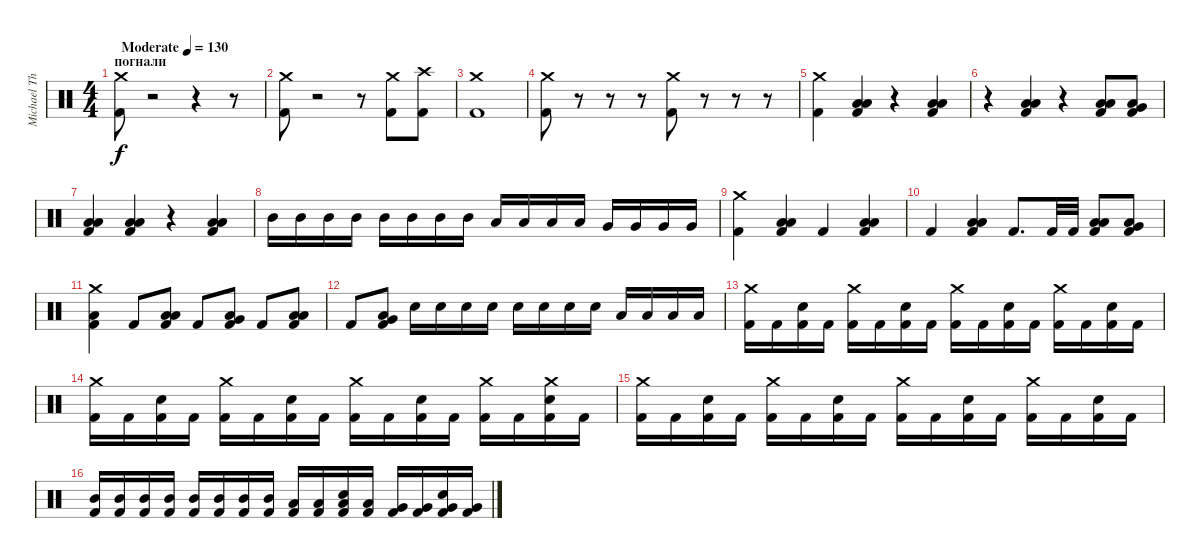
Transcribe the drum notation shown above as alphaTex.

\track ("Michael Thomas" "Michael Th") {instrument percussion}
\staff {score}
\articulation defaults
\ts (4 4)
\section ("" "погнали")
\tempo (130 "Moderate")
\clef neutral
\ks c
("Crash medium (hit)" "Kick (hit) 2").8{dy f} r.2 r.4 r.8 |
("Crash medium (hit)" "Kick (hit) 2").8 r.2 r.8 ("Crash medium (hit)" "Kick (hit) 2").8 ("Crash high (hit)" "Kick (hit) 2").8 |
("Crash medium (hit)" "Kick (hit) 2").1 |
("Crash medium (hit)" "Kick (hit) 2").8 r.8 r.8 r.8 ("Crash medium (hit)" "Kick (hit) 2").8 r.8 r.8 r.8 |
("Crash medium (hit)" "Kick (hit) 2").4 ("Low Floor Tom (hit)" "Low Tom (hit)" "Kick (hit) 2").4 r.4 ("Low Floor Tom (hit)" "Low Tom (hit)" "Kick (hit) 2").4 |
r.4 ("Low Floor Tom (hit)" "Low Tom (hit)" "Kick (hit) 2").4 r.4 ("Low Floor Tom (hit)" "Low Tom (hit)" "Kick (hit) 2").8 ("Low Floor Tom (hit)" "Very Low Tom (hit)" "Kick (hit) 2").8 |
("Low Floor Tom (hit)" "Low Tom (hit)" "Kick (hit) 2").4 ("Low Floor Tom (hit)" "Low Tom (hit)" "Kick (hit) 2").4 r.4 ("Low Floor Tom (hit)" "Low Tom (hit)" "Kick (hit) 2").4 |
"Mid Tom (hit)".16 "Mid Tom (hit)".16 "Mid Tom (hit)".16 "Mid Tom (hit)".16 "Mid Tom (hit)".16 "Mid Tom (hit)".16 "Mid Tom (hit)".16 "Mid Tom (hit)".16 "Low Tom (hit)".16 "Low Tom (hit)".16 "Low Tom (hit)".16 "Low Tom (hit)".16 "Very Low Tom (hit)".16 "Very Low Tom (hit)".16 "Very Low Tom (hit)".16 "Very Low Tom (hit)".16 |
("Crash medium (hit)" "Kick (hit) 2").4 ("Low Floor Tom (hit)" "Low Tom (hit)" "Kick (hit) 2").4 "Kick (hit) 2".4 ("Low Floor Tom (hit)" "Low Tom (hit)" "Kick (hit) 2").4 |
"Kick (hit) 2".4 ("Low Floor Tom (hit)" "Low Tom (hit)" "Kick (hit) 2").4 "Kick (hit) 2".8{d} "Kick (hit) 2".32 "Kick (hit) 2".32 ("Low Floor Tom (hit)" "Low Tom (hit)" "Kick (hit) 2").8 ("Low Floor Tom (hit)" "Very Low Tom (hit)" "Kick (hit) 2").8 |
("Crash medium (hit)" "Low Floor Tom (hit)" "Kick (hit) 2").4 "Kick (hit) 2".8 ("Low Floor Tom (hit)" "Low Tom (hit)" "Kick (hit) 2").8 "Kick (hit) 2".8 ("Low Floor Tom (hit)" "Very Low Tom (hit)" "Kick (hit) 2").8 "Kick (hit) 2".8 ("Low Floor Tom (hit)" "Low Tom (hit)" "Kick (hit) 2").8 |
"Kick (hit) 2".8 ("Low Floor Tom (hit)" "Very Low Tom (hit)" "Kick (hit) 2").8 "Electric Snare (hit)".16 "Electric Snare (hit)".16 "Electric Snare (hit)".16 "Electric Snare (hit)".16 "Electric Snare (hit)".16 "Electric Snare (hit)".16 "Electric Snare (hit)".16 "Electric Snare (hit)".16 "Low Tom (hit)".16 "Low Tom (hit)".16 "Low Tom (hit)".16 "Low Tom (hit)".16 |
("Crash medium (hit)" "Kick (hit) 2").16 "Kick (hit) 2".16 ("Electric Snare (hit)" "Kick (hit) 2").16 "Kick (hit) 2".16 ("Crash medium (hit)" "Kick (hit) 2").16 "Kick (hit) 2".16 ("Electric Snare (hit)" "Kick (hit) 2").16 "Kick (hit) 2".16 ("Crash medium (hit)" "Kick (hit) 2").16 "Kick (hit) 2".16 ("Electric Snare (hit)" "Kick (hit) 2").16 "Kick (hit) 2".16 ("Crash medium (hit)" "Kick (hit) 2").16 "Kick (hit) 2".16 ("Electric Snare (hit)" "Kick (hit) 2").16 "Kick (hit) 2".16 |
("Crash medium (hit)" "Kick (hit) 2").16 "Kick (hit) 2".16 ("Electric Snare (hit)" "Kick (hit) 2").16 "Kick (hit) 2".16 ("Crash medium (hit)" "Kick (hit) 2").16 "Kick (hit) 2".16 ("Electric Snare (hit)" "Kick (hit) 2").16 "Kick (hit) 2".16 ("Crash medium (hit)" "Kick (hit) 2").16 "Kick (hit) 2".16 ("Electric Snare (hit)" "Kick (hit) 2").16 "Kick (hit) 2".16 ("Crash medium (hit)" "Kick (hit) 2").16 "Kick (hit) 2".16 ("Crash medium (hit)" "Electric Snare (hit)" "Kick (hit) 2").16 "Kick (hit) 2".16 |
("Crash medium (hit)" "Kick (hit) 2").16 "Kick (hit) 2".16 ("Electric Snare (hit)" "Kick (hit) 2").16 "Kick (hit) 2".16 ("Crash medium (hit)" "Kick (hit) 2").16 "Kick (hit) 2".16 ("Electric Snare (hit)" "Kick (hit) 2").16 "Kick (hit) 2".16 ("Crash medium (hit)" "Kick (hit) 2").16 "Kick (hit) 2".16 ("Electric Snare (hit)" "Kick (hit) 2").16 "Kick (hit) 2".16 ("Crash medium (hit)" "Kick (hit) 2").16 "Kick (hit) 2".16 ("Electric Snare (hit)" "Kick (hit) 2").16 "Kick (hit) 2".16 |
("Mid Tom (hit)" "Kick (hit) 2").16 ("Mid Tom (hit)" "Kick (hit) 2").16 ("Mid Tom (hit)" "Kick (hit) 2").16 ("Mid Tom (hit)" "Kick (hit) 2").16 ("Mid Tom (hit)" "Kick (hit) 2").16 ("Mid Tom (hit)" "Kick (hit) 2").16 ("Mid Tom (hit)" "Kick (hit) 2").16 ("Mid Tom (hit)" "Kick (hit) 2").16 ("Low Tom (hit)" "Kick (hit) 2").16 ("Low Tom (hit)" "Kick (hit) 2").16 ("Electric Snare (hit)" "Low Tom (hit)" "Kick (hit) 2").16 ("Low Tom (hit)" "Kick (hit) 2").16 ("Very Low Tom (hit)" "Kick (hit) 2").16 ("Very Low Tom (hit)" "Kick (hit) 2").16 ("Electric Snare (hit)" "Very Low Tom (hit)" "Kick (hit) 2").16 ("Very Low Tom (hit)" "Kick (hit) 2").16
